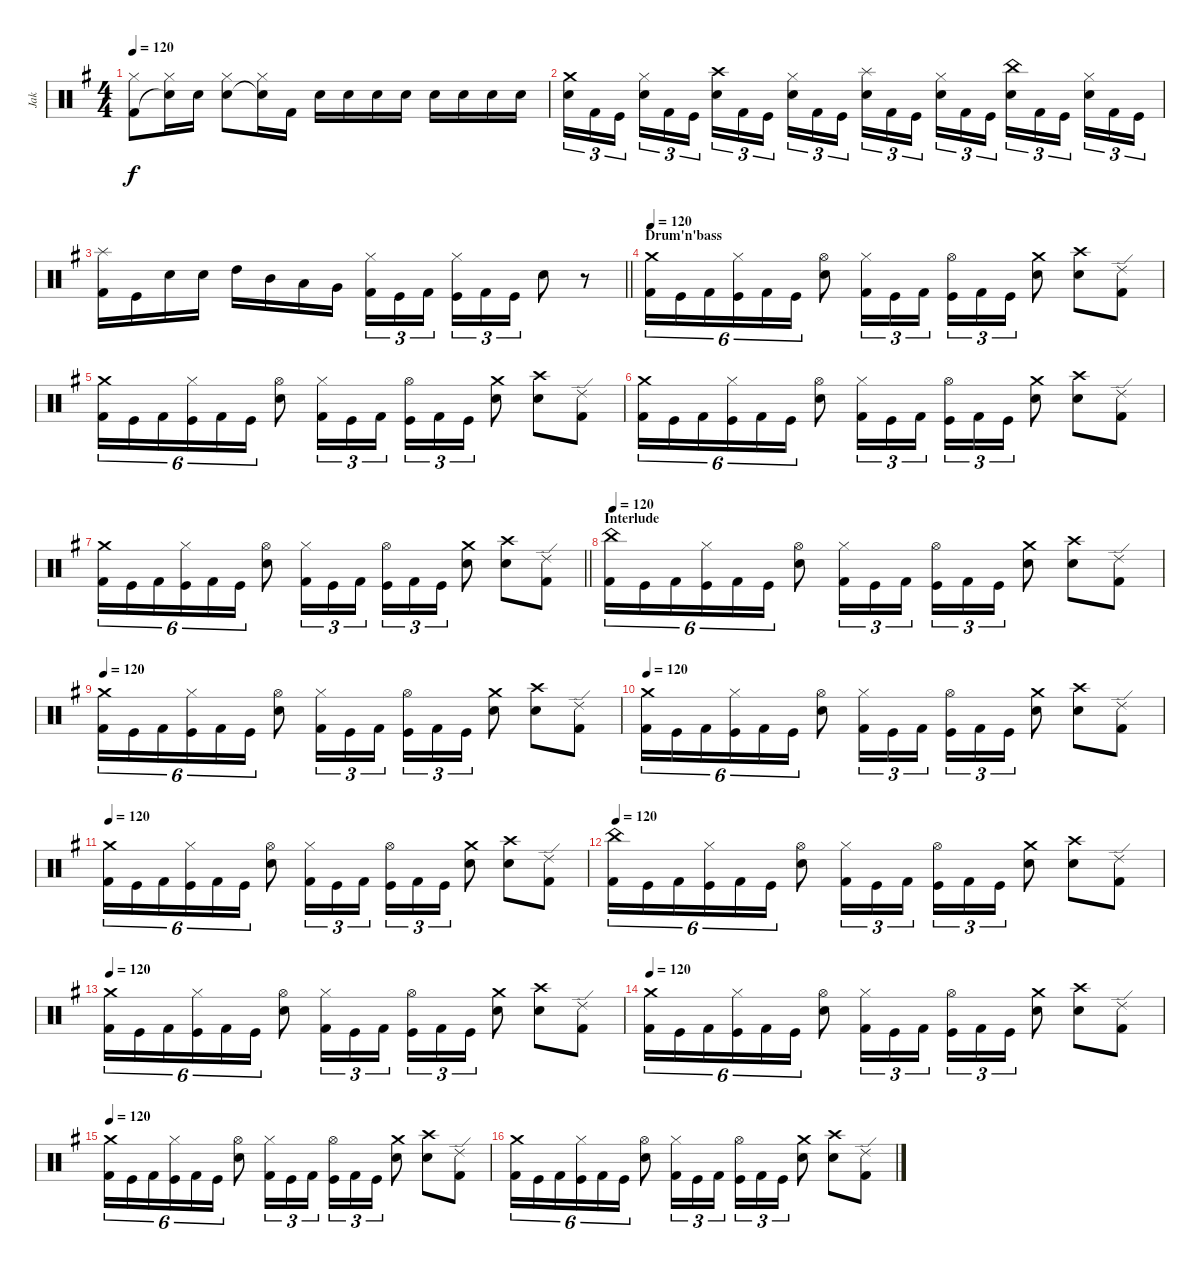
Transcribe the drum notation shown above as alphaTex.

\track ("Jak" "Jak") {instrument percussion}
\staff {score}
\articulation defaults
\ts (4 4)
\tempo 120
\clef neutral
\ks eminor
("Hi-Hat (closed)" "Kick (hit) 2").8{dy f} ("Hi-Hat (closed)" "Snare (hit)"{t}).16 "Snare (hit) 2".16 ("Hi-Hat (closed)" "Snare (hit) 2").8 ("Hi-Hat (closed)" "Snare (hit)"{t}).16 "Kick (hit) 2".16 "Snare (hit) 2".16 "Snare (hit) 2".16 "Snare (hit) 2".16 "Snare (hit) 2".16 "Snare (hit) 2".16 "Snare (hit) 2".16 "Snare (hit) 2".16 "Snare (hit) 2".16 |
("Crash medium (hit)" "Snare (hit) 2").16{tu (3 2)} "Kick (hit) 2".16{tu (3 2)} "Kick (hit)".16{tu (3 2)} ("Hi-Hat (closed)" "Snare (hit) 2").16{tu (3 2)} "Kick (hit) 2".16{tu (3 2)} "Kick (hit)".16{tu (3 2)} ("Crash high (hit)" "Snare (hit) 2").16{tu (3 2)} "Kick (hit) 2".16{tu (3 2)} "Kick (hit)".16{tu (3 2)} ("Hi-Hat (closed)" "Snare (hit) 2").16{tu (3 2)} "Kick (hit) 2".16{tu (3 2)} "Kick (hit)".16{tu (3 2)} ("Splash (hit)" "Snare (hit) 2").16{tu (3 2)} "Kick (hit) 2".16{tu (3 2)} "Kick (hit)".16{tu (3 2)} ("Hi-Hat (closed)" "Snare (hit) 2").16{tu (3 2)} "Kick (hit) 2".16{tu (3 2)} "Kick (hit)".16{tu (3 2)} ("China (hit)" "Snare (hit) 2").16{tu (3 2)} "Kick (hit) 2".16{tu (3 2)} "Kick (hit)".16{tu (3 2)} ("Hi-Hat (closed)" "Snare (hit) 2").16{tu (3 2)} "Kick (hit) 2".16{tu (3 2)} "Kick (hit)".16{tu (3 2)} |
\barLineRight lightlight
("Splash (hit)" "Kick (hit) 2").16 "Kick (hit)".16 "Snare (hit) 2".16 "Snare (hit) 2".16 "High Tom (hit)".16 "Mid Tom (hit)".16 "Low Tom (hit)".16 "Very Low Tom (hit)".16 ("Hi-Hat (closed)" "Kick (hit) 2").16{tu (3 2)} "Kick (hit)".16{tu (3 2)} "Kick (hit) 2".16{tu (3 2)} ("Hi-Hat (closed)" "Kick (hit)").16{tu (3 2)} "Kick (hit) 2".16{tu (3 2)} "Kick (hit)".16{tu (3 2)} "Snare (hit) 2".8 r.8 |
\section ("" "Drum'n'bass")
\tempo 120
("Crash medium (hit)" "Kick (hit) 2").16{tu (6 4)} "Kick (hit)".16{tu (6 4)} "Kick (hit) 2".16{tu (6 4)} ("Hi-Hat (closed)" "Kick (hit)").16{tu (6 4)} "Kick (hit) 2".16{tu (6 4)} "Kick (hit)".16{tu (6 4)} ("Hi-Hat (open)" "Snare (hit) 2").8 ("Hi-Hat (closed)" "Kick (hit) 2").16{tu (3 2)} "Kick (hit)".16{tu (3 2)} "Kick (hit) 2".16{tu (3 2)} ("Hi-Hat (open)" "Kick (hit)").16{tu (3 2)} "Kick (hit) 2".16{tu (3 2)} "Kick (hit)".16{tu (3 2)} ("Crash medium (hit)" "Snare (hit) 2").8 ("Crash high (hit)" "Snare (hit) 2").8 ("Ride (edge) 2" "Kick (hit) 2").8 |
("Crash medium (hit)" "Kick (hit) 2").16{tu (6 4)} "Kick (hit)".16{tu (6 4)} "Kick (hit) 2".16{tu (6 4)} ("Hi-Hat (closed)" "Kick (hit)").16{tu (6 4)} "Kick (hit) 2".16{tu (6 4)} "Kick (hit)".16{tu (6 4)} ("Hi-Hat (open)" "Snare (hit) 2").8 ("Hi-Hat (closed)" "Kick (hit) 2").16{tu (3 2)} "Kick (hit)".16{tu (3 2)} "Kick (hit) 2".16{tu (3 2)} ("Hi-Hat (open)" "Kick (hit)").16{tu (3 2)} "Kick (hit) 2".16{tu (3 2)} "Kick (hit)".16{tu (3 2)} ("Crash medium (hit)" "Snare (hit) 2").8 ("Crash high (hit)" "Snare (hit) 2").8 ("Ride (edge) 2" "Kick (hit) 2").8 |
("Crash medium (hit)" "Kick (hit) 2").16{tu (6 4)} "Kick (hit)".16{tu (6 4)} "Kick (hit) 2".16{tu (6 4)} ("Hi-Hat (closed)" "Kick (hit)").16{tu (6 4)} "Kick (hit) 2".16{tu (6 4)} "Kick (hit)".16{tu (6 4)} ("Hi-Hat (open)" "Snare (hit) 2").8 ("Hi-Hat (closed)" "Kick (hit) 2").16{tu (3 2)} "Kick (hit)".16{tu (3 2)} "Kick (hit) 2".16{tu (3 2)} ("Hi-Hat (open)" "Kick (hit)").16{tu (3 2)} "Kick (hit) 2".16{tu (3 2)} "Kick (hit)".16{tu (3 2)} ("Crash medium (hit)" "Snare (hit) 2").8 ("Crash high (hit)" "Snare (hit) 2").8 ("Ride (edge) 2" "Kick (hit) 2").8 |
\barLineRight lightlight
("Crash medium (hit)" "Kick (hit) 2").16{tu (6 4)} "Kick (hit)".16{tu (6 4)} "Kick (hit) 2".16{tu (6 4)} ("Hi-Hat (closed)" "Kick (hit)").16{tu (6 4)} "Kick (hit) 2".16{tu (6 4)} "Kick (hit)".16{tu (6 4)} ("Hi-Hat (open)" "Snare (hit) 2").8 ("Hi-Hat (closed)" "Kick (hit) 2").16{tu (3 2)} "Kick (hit)".16{tu (3 2)} "Kick (hit) 2".16{tu (3 2)} ("Hi-Hat (open)" "Kick (hit)").16{tu (3 2)} "Kick (hit) 2".16{tu (3 2)} "Kick (hit)".16{tu (3 2)} ("Crash medium (hit)" "Snare (hit) 2").8 ("Crash high (hit)" "Snare (hit) 2").8 ("Ride (edge) 2" "Kick (hit) 2").8 |
\section ("" "Interlude")
\tempo 120
("China (hit)" "Kick (hit) 2").16{tu (6 4)} "Kick (hit)".16{tu (6 4)} "Kick (hit) 2".16{tu (6 4)} ("Hi-Hat (closed)" "Kick (hit)").16{tu (6 4)} "Kick (hit) 2".16{tu (6 4)} "Kick (hit)".16{tu (6 4)} ("Hi-Hat (open)" "Snare (hit) 2").8 ("Hi-Hat (closed)" "Kick (hit) 2").16{tu (3 2)} "Kick (hit)".16{tu (3 2)} "Kick (hit) 2".16{tu (3 2)} ("Hi-Hat (open)" "Kick (hit)").16{tu (3 2)} "Kick (hit) 2".16{tu (3 2)} "Kick (hit)".16{tu (3 2)} ("Crash medium (hit)" "Snare (hit) 2").8 ("Crash high (hit)" "Snare (hit) 2").8 ("Ride (edge) 2" "Kick (hit) 2").8 |
\tempo 120
("Crash medium (hit)" "Kick (hit) 2").16{tu (6 4)} "Kick (hit)".16{tu (6 4)} "Kick (hit) 2".16{tu (6 4)} ("Hi-Hat (closed)" "Kick (hit)").16{tu (6 4)} "Kick (hit) 2".16{tu (6 4)} "Kick (hit)".16{tu (6 4)} ("Hi-Hat (open)" "Snare (hit) 2").8 ("Hi-Hat (closed)" "Kick (hit) 2").16{tu (3 2)} "Kick (hit)".16{tu (3 2)} "Kick (hit) 2".16{tu (3 2)} ("Hi-Hat (open)" "Kick (hit)").16{tu (3 2)} "Kick (hit) 2".16{tu (3 2)} "Kick (hit)".16{tu (3 2)} ("Crash medium (hit)" "Snare (hit) 2").8 ("Crash high (hit)" "Snare (hit) 2").8 ("Ride (edge) 2" "Kick (hit) 2").8 |
\tempo 120
("Crash medium (hit)" "Kick (hit) 2").16{tu (6 4)} "Kick (hit)".16{tu (6 4)} "Kick (hit) 2".16{tu (6 4)} ("Hi-Hat (closed)" "Kick (hit)").16{tu (6 4)} "Kick (hit) 2".16{tu (6 4)} "Kick (hit)".16{tu (6 4)} ("Hi-Hat (open)" "Snare (hit) 2").8 ("Hi-Hat (closed)" "Kick (hit) 2").16{tu (3 2)} "Kick (hit)".16{tu (3 2)} "Kick (hit) 2".16{tu (3 2)} ("Hi-Hat (open)" "Kick (hit)").16{tu (3 2)} "Kick (hit) 2".16{tu (3 2)} "Kick (hit)".16{tu (3 2)} ("Crash medium (hit)" "Snare (hit) 2").8 ("Crash high (hit)" "Snare (hit) 2").8 ("Ride (edge) 2" "Kick (hit) 2").8 |
\tempo 120
("Crash medium (hit)" "Kick (hit) 2").16{tu (6 4)} "Kick (hit)".16{tu (6 4)} "Kick (hit) 2".16{tu (6 4)} ("Hi-Hat (closed)" "Kick (hit)").16{tu (6 4)} "Kick (hit) 2".16{tu (6 4)} "Kick (hit)".16{tu (6 4)} ("Hi-Hat (open)" "Snare (hit) 2").8 ("Hi-Hat (closed)" "Kick (hit) 2").16{tu (3 2)} "Kick (hit)".16{tu (3 2)} "Kick (hit) 2".16{tu (3 2)} ("Hi-Hat (open)" "Kick (hit)").16{tu (3 2)} "Kick (hit) 2".16{tu (3 2)} "Kick (hit)".16{tu (3 2)} ("Crash medium (hit)" "Snare (hit) 2").8 ("Crash high (hit)" "Snare (hit) 2").8 ("Ride (edge) 2" "Kick (hit) 2").8 |
\tempo 120
("China (hit)" "Kick (hit) 2").16{tu (6 4)} "Kick (hit)".16{tu (6 4)} "Kick (hit) 2".16{tu (6 4)} ("Hi-Hat (closed)" "Kick (hit)").16{tu (6 4)} "Kick (hit) 2".16{tu (6 4)} "Kick (hit)".16{tu (6 4)} ("Hi-Hat (open)" "Snare (hit) 2").8 ("Hi-Hat (closed)" "Kick (hit) 2").16{tu (3 2)} "Kick (hit)".16{tu (3 2)} "Kick (hit) 2".16{tu (3 2)} ("Hi-Hat (open)" "Kick (hit)").16{tu (3 2)} "Kick (hit) 2".16{tu (3 2)} "Kick (hit)".16{tu (3 2)} ("Crash medium (hit)" "Snare (hit) 2").8 ("Crash high (hit)" "Snare (hit) 2").8 ("Ride (edge) 2" "Kick (hit) 2").8 |
\tempo 120
("Crash medium (hit)" "Kick (hit) 2").16{tu (6 4)} "Kick (hit)".16{tu (6 4)} "Kick (hit) 2".16{tu (6 4)} ("Hi-Hat (closed)" "Kick (hit)").16{tu (6 4)} "Kick (hit) 2".16{tu (6 4)} "Kick (hit)".16{tu (6 4)} ("Hi-Hat (open)" "Snare (hit) 2").8 ("Hi-Hat (closed)" "Kick (hit) 2").16{tu (3 2)} "Kick (hit)".16{tu (3 2)} "Kick (hit) 2".16{tu (3 2)} ("Hi-Hat (open)" "Kick (hit)").16{tu (3 2)} "Kick (hit) 2".16{tu (3 2)} "Kick (hit)".16{tu (3 2)} ("Crash medium (hit)" "Snare (hit) 2").8 ("Crash high (hit)" "Snare (hit) 2").8 ("Ride (edge) 2" "Kick (hit) 2").8 |
\tempo 120
("Crash medium (hit)" "Kick (hit) 2").16{tu (6 4)} "Kick (hit)".16{tu (6 4)} "Kick (hit) 2".16{tu (6 4)} ("Hi-Hat (closed)" "Kick (hit)").16{tu (6 4)} "Kick (hit) 2".16{tu (6 4)} "Kick (hit)".16{tu (6 4)} ("Hi-Hat (open)" "Snare (hit) 2").8 ("Hi-Hat (closed)" "Kick (hit) 2").16{tu (3 2)} "Kick (hit)".16{tu (3 2)} "Kick (hit) 2".16{tu (3 2)} ("Hi-Hat (open)" "Kick (hit)").16{tu (3 2)} "Kick (hit) 2".16{tu (3 2)} "Kick (hit)".16{tu (3 2)} ("Crash medium (hit)" "Snare (hit) 2").8 ("Crash high (hit)" "Snare (hit) 2").8 ("Ride (edge) 2" "Kick (hit) 2").8 |
\tempo 120
("Crash medium (hit)" "Kick (hit) 2").16{tu (6 4)} "Kick (hit)".16{tu (6 4)} "Kick (hit) 2".16{tu (6 4)} ("Hi-Hat (closed)" "Kick (hit)").16{tu (6 4)} "Kick (hit) 2".16{tu (6 4)} "Kick (hit)".16{tu (6 4)} ("Hi-Hat (open)" "Snare (hit) 2").8 ("Hi-Hat (closed)" "Kick (hit) 2").16{tu (3 2)} "Kick (hit)".16{tu (3 2)} "Kick (hit) 2".16{tu (3 2)} ("Hi-Hat (open)" "Kick (hit)").16{tu (3 2)} "Kick (hit) 2".16{tu (3 2)} "Kick (hit)".16{tu (3 2)} ("Crash medium (hit)" "Snare (hit) 2").8 ("Crash high (hit)" "Snare (hit) 2").8 ("Ride (edge) 2" "Kick (hit) 2").8 |
("Crash medium (hit)" "Kick (hit) 2").16{tu (6 4)} "Kick (hit)".16{tu (6 4)} "Kick (hit) 2".16{tu (6 4)} ("Hi-Hat (closed)" "Kick (hit)").16{tu (6 4)} "Kick (hit) 2".16{tu (6 4)} "Kick (hit)".16{tu (6 4)} ("Hi-Hat (open)" "Snare (hit) 2").8 ("Hi-Hat (closed)" "Kick (hit) 2").16{tu (3 2)} "Kick (hit)".16{tu (3 2)} "Kick (hit) 2".16{tu (3 2)} ("Hi-Hat (open)" "Kick (hit)").16{tu (3 2)} "Kick (hit) 2".16{tu (3 2)} "Kick (hit)".16{tu (3 2)} ("Crash medium (hit)" "Snare (hit) 2").8 ("Crash high (hit)" "Snare (hit) 2").8 ("Ride (edge) 2" "Kick (hit) 2").8
